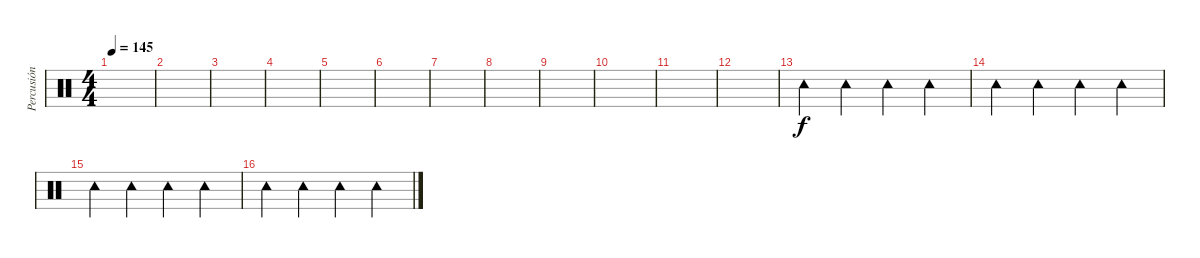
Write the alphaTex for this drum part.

\track ("Percusión" "Percusión") {instrument percussion}
\staff {score}
\articulation defaults
\ts (4 4)
\tempo 145
\clef neutral
\ks c
|
|
|
|
|
|
|
|
|
|
|
|
"Tambourine (hit)".4 "Tambourine (hit)".4 "Tambourine (hit)".4 "Tambourine (hit)".4 |
"Tambourine (hit)".4 "Tambourine (hit)".4 "Tambourine (hit)".4 "Tambourine (hit)".4 |
"Tambourine (hit)".4 "Tambourine (hit)".4 "Tambourine (hit)".4 "Tambourine (hit)".4 |
"Tambourine (hit)".4 "Tambourine (hit)".4 "Tambourine (hit)".4 "Tambourine (hit)".4
